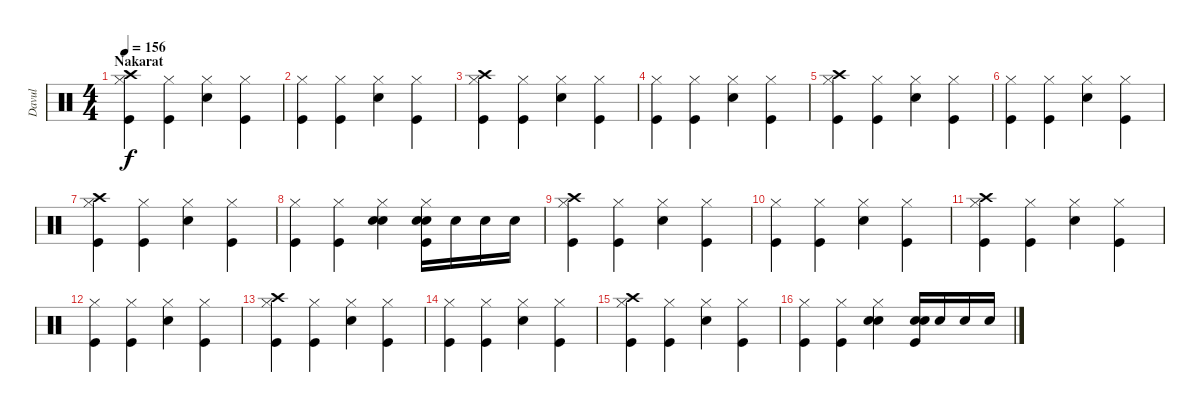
\track ("Davul" "Davul") {instrument percussion}
\staff {score}
\articulation defaults
\ts (4 4)
\section ("" "Nakarat")
\tempo 156
\clef neutral
\ks c
("Hi-Hat (closed)" "Kick (hit)" "Crash high (hit)").4{dy f} ("Hi-Hat (closed)" "Kick (hit)").4 ("Hi-Hat (closed)" "Snare (hit) 2").4 ("Hi-Hat (closed)" "Kick (hit)").4 |
("Hi-Hat (closed)" "Kick (hit)").4 ("Hi-Hat (closed)" "Kick (hit)").4 ("Hi-Hat (closed)" "Snare (hit) 2").4 ("Hi-Hat (closed)" "Kick (hit)").4 |
("Hi-Hat (closed)" "Kick (hit)" "Crash high (hit)").4 ("Hi-Hat (closed)" "Kick (hit)").4 ("Hi-Hat (closed)" "Snare (hit) 2").4 ("Hi-Hat (closed)" "Kick (hit)").4 |
("Hi-Hat (closed)" "Kick (hit)").4 ("Hi-Hat (closed)" "Kick (hit)").4 ("Hi-Hat (closed)" "Snare (hit) 2").4 ("Hi-Hat (closed)" "Kick (hit)").4 |
("Hi-Hat (closed)" "Kick (hit)" "Crash high (hit)").4 ("Hi-Hat (closed)" "Kick (hit)").4 ("Hi-Hat (closed)" "Snare (hit) 2").4 ("Hi-Hat (closed)" "Kick (hit)").4 |
("Hi-Hat (closed)" "Kick (hit)").4 ("Hi-Hat (closed)" "Kick (hit)").4 ("Hi-Hat (closed)" "Snare (hit) 2").4 ("Hi-Hat (closed)" "Kick (hit)").4 |
("Hi-Hat (closed)" "Kick (hit)" "Crash high (hit)").4 ("Hi-Hat (closed)" "Kick (hit)").4 ("Hi-Hat (closed)" "Snare (hit) 2").4 ("Hi-Hat (closed)" "Kick (hit)").4 |
("Hi-Hat (closed)" "Kick (hit)").4 ("Hi-Hat (closed)" "Kick (hit)").4 ("Hi-Hat (closed)" "Snare (hit) 2" "Snare (hit) 2").4 ("Hi-Hat (closed)" "Kick (hit)" "Snare (hit) 2" "Snare (hit) 2").16 "Snare (hit) 2".16 "Snare (hit) 2".16 "Snare (hit) 2".16 |
("Hi-Hat (closed)" "Kick (hit)" "Crash high (hit)").4 ("Hi-Hat (closed)" "Kick (hit)").4 ("Hi-Hat (closed)" "Snare (hit) 2").4 ("Hi-Hat (closed)" "Kick (hit)").4 |
("Hi-Hat (closed)" "Kick (hit)").4 ("Hi-Hat (closed)" "Kick (hit)").4 ("Hi-Hat (closed)" "Snare (hit) 2").4 ("Hi-Hat (closed)" "Kick (hit)").4 |
("Hi-Hat (closed)" "Kick (hit)" "Crash high (hit)").4 ("Hi-Hat (closed)" "Kick (hit)").4 ("Hi-Hat (closed)" "Snare (hit) 2").4 ("Hi-Hat (closed)" "Kick (hit)").4 |
("Hi-Hat (closed)" "Kick (hit)").4 ("Hi-Hat (closed)" "Kick (hit)").4 ("Hi-Hat (closed)" "Snare (hit) 2").4 ("Hi-Hat (closed)" "Kick (hit)").4 |
("Hi-Hat (closed)" "Kick (hit)" "Crash high (hit)").4 ("Hi-Hat (closed)" "Kick (hit)").4 ("Hi-Hat (closed)" "Snare (hit) 2").4 ("Hi-Hat (closed)" "Kick (hit)").4 |
("Hi-Hat (closed)" "Kick (hit)").4 ("Hi-Hat (closed)" "Kick (hit)").4 ("Hi-Hat (closed)" "Snare (hit) 2").4 ("Hi-Hat (closed)" "Kick (hit)").4 |
("Hi-Hat (closed)" "Kick (hit)" "Crash high (hit)").4 ("Hi-Hat (closed)" "Kick (hit)").4 ("Hi-Hat (closed)" "Snare (hit) 2").4 ("Hi-Hat (closed)" "Kick (hit)").4 |
("Hi-Hat (closed)" "Kick (hit)").4 ("Hi-Hat (closed)" "Kick (hit)").4 ("Hi-Hat (closed)" "Snare (hit) 2" "Snare (hit) 2").4 ("Snare (hit) 2" "Kick (hit)" "Snare (hit) 2").16 "Snare (hit) 2".16 "Snare (hit) 2".16 "Snare (hit) 2".16
